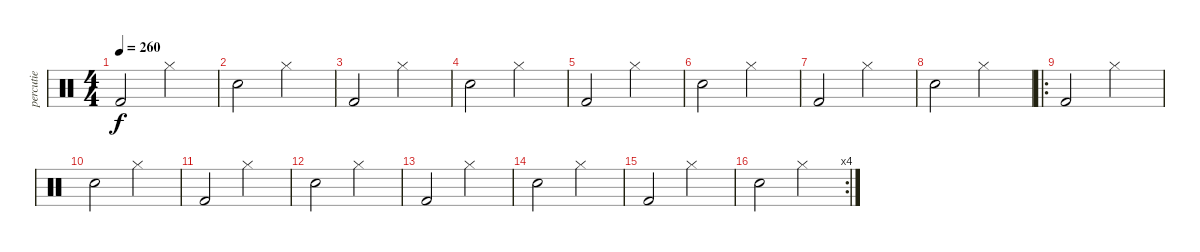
\track ("percutie" "percutie") {instrument percussion}
\staff {score}
\articulation defaults
\ts (4 4)
\tempo 260
\clef neutral
\ks c "Kick (hit) 2".2{dy f} "Hi-Hat (closed)".2
|
"Snare (hit) 2".2 "Hi-Hat (closed)".2 |
"Kick (hit) 2".2 "Hi-Hat (closed)".2 |
"Snare (hit) 2".2 "Hi-Hat (closed)".2 |
"Kick (hit) 2".2 "Hi-Hat (closed)".2 |
"Snare (hit) 2".2 "Hi-Hat (closed)".2 |
"Kick (hit) 2".2 "Hi-Hat (closed)".2 |
"Snare (hit) 2".2 "Hi-Hat (closed)".2 |
\ro "Kick (hit) 2".2 "Hi-Hat (closed)".2
|
"Snare (hit) 2".2 "Hi-Hat (closed)".2 |
"Kick (hit) 2".2 "Hi-Hat (closed)".2 |
"Snare (hit) 2".2 "Hi-Hat (closed)".2 |
"Kick (hit) 2".2 "Hi-Hat (closed)".2 |
"Snare (hit) 2".2 "Hi-Hat (closed)".2 |
"Kick (hit) 2".2 "Hi-Hat (closed)".2 |
\rc 4 "Snare (hit) 2".2 "Hi-Hat (closed)".2
